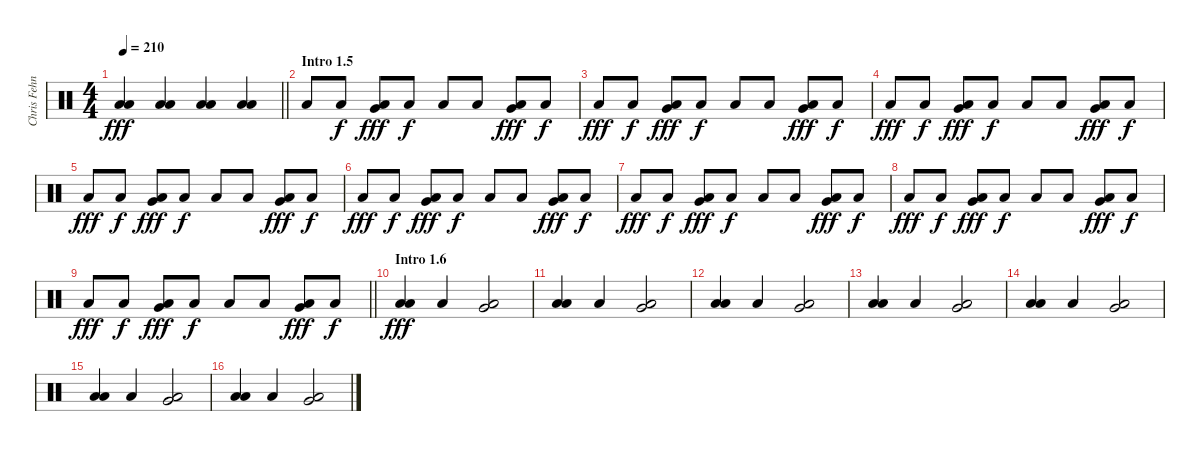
\track ("Chris Fehn" "Chris Fehn") {instrument percussion}
\staff {score}
\articulation defaults
\ts (4 4)
\tempo 210
\clef neutral
\barLineRight lightlight
\ks c
("Low Floor Tom (hit)" "Low Floor Tom (hit)").4{dy fff} ("Low Floor Tom (hit)" "Low Floor Tom (hit)").4 ("Low Floor Tom (hit)" "Low Floor Tom (hit)").4 ("Low Floor Tom (hit)" "Low Floor Tom (hit)").4 |
\section ("" "Intro 1.5")
"Low Floor Tom (hit)".8 "Low Floor Tom (hit)".8{dy f} ("Very Low Tom (hit)" "Low Floor Tom (hit)").8{dy fff} "Low Floor Tom (hit)".8{dy f} "Low Floor Tom (hit)".8 "Low Floor Tom (hit)".8 ("Very Low Tom (hit)" "Low Floor Tom (hit)").8{dy fff} "Low Floor Tom (hit)".8{dy f} |
"Low Floor Tom (hit)".8{dy fff} "Low Floor Tom (hit)".8{dy f} ("Very Low Tom (hit)" "Low Floor Tom (hit)").8{dy fff} "Low Floor Tom (hit)".8{dy f} "Low Floor Tom (hit)".8 "Low Floor Tom (hit)".8 ("Very Low Tom (hit)" "Low Floor Tom (hit)").8{dy fff} "Low Floor Tom (hit)".8{dy f} |
"Low Floor Tom (hit)".8{dy fff} "Low Floor Tom (hit)".8{dy f} ("Very Low Tom (hit)" "Low Floor Tom (hit)").8{dy fff} "Low Floor Tom (hit)".8{dy f} "Low Floor Tom (hit)".8 "Low Floor Tom (hit)".8 ("Very Low Tom (hit)" "Low Floor Tom (hit)").8{dy fff} "Low Floor Tom (hit)".8{dy f} |
"Low Floor Tom (hit)".8{dy fff} "Low Floor Tom (hit)".8{dy f} ("Very Low Tom (hit)" "Low Floor Tom (hit)").8{dy fff} "Low Floor Tom (hit)".8{dy f} "Low Floor Tom (hit)".8 "Low Floor Tom (hit)".8 ("Very Low Tom (hit)" "Low Floor Tom (hit)").8{dy fff} "Low Floor Tom (hit)".8{dy f} |
"Low Floor Tom (hit)".8{dy fff} "Low Floor Tom (hit)".8{dy f} ("Very Low Tom (hit)" "Low Floor Tom (hit)").8{dy fff} "Low Floor Tom (hit)".8{dy f} "Low Floor Tom (hit)".8 "Low Floor Tom (hit)".8 ("Very Low Tom (hit)" "Low Floor Tom (hit)").8{dy fff} "Low Floor Tom (hit)".8{dy f} |
"Low Floor Tom (hit)".8{dy fff} "Low Floor Tom (hit)".8{dy f} ("Very Low Tom (hit)" "Low Floor Tom (hit)").8{dy fff} "Low Floor Tom (hit)".8{dy f} "Low Floor Tom (hit)".8 "Low Floor Tom (hit)".8 ("Very Low Tom (hit)" "Low Floor Tom (hit)").8{dy fff} "Low Floor Tom (hit)".8{dy f} |
"Low Floor Tom (hit)".8{dy fff} "Low Floor Tom (hit)".8{dy f} ("Very Low Tom (hit)" "Low Floor Tom (hit)").8{dy fff} "Low Floor Tom (hit)".8{dy f} "Low Floor Tom (hit)".8 "Low Floor Tom (hit)".8 ("Very Low Tom (hit)" "Low Floor Tom (hit)").8{dy fff} "Low Floor Tom (hit)".8{dy f} |
\barLineRight lightlight "Low Floor Tom (hit)".8{dy fff} "Low Floor Tom (hit)".8{dy f}
("Very Low Tom (hit)" "Low Floor Tom (hit)").8{dy fff} "Low Floor Tom (hit)".8{dy f} "Low Floor Tom (hit)".8 "Low Floor Tom (hit)".8 ("Very Low Tom (hit)" "Low Floor Tom (hit)").8{dy fff} "Low Floor Tom (hit)".8{dy f} |
\section ("" "Intro 1.6")
("Low Floor Tom (hit)" "Low Floor Tom (hit)").4{dy fff} "Low Floor Tom (hit)".4 ("Very Low Tom (hit)" "Low Floor Tom (hit)").2 |
("Low Floor Tom (hit)" "Low Floor Tom (hit)").4 "Low Floor Tom (hit)".4 ("Very Low Tom (hit)" "Low Floor Tom (hit)").2 |
("Low Floor Tom (hit)" "Low Floor Tom (hit)").4 "Low Floor Tom (hit)".4 ("Very Low Tom (hit)" "Low Floor Tom (hit)").2 |
("Low Floor Tom (hit)" "Low Floor Tom (hit)").4 "Low Floor Tom (hit)".4 ("Very Low Tom (hit)" "Low Floor Tom (hit)").2 |
("Low Floor Tom (hit)" "Low Floor Tom (hit)").4 "Low Floor Tom (hit)".4 ("Very Low Tom (hit)" "Low Floor Tom (hit)").2 |
("Low Floor Tom (hit)" "Low Floor Tom (hit)").4 "Low Floor Tom (hit)".4 ("Very Low Tom (hit)" "Low Floor Tom (hit)").2 |
("Low Floor Tom (hit)" "Low Floor Tom (hit)").4 "Low Floor Tom (hit)".4 ("Very Low Tom (hit)" "Low Floor Tom (hit)").2
